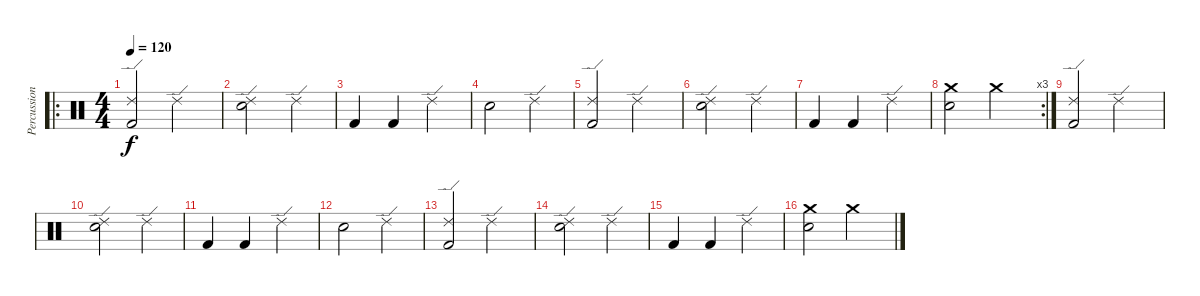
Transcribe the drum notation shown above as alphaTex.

\track ("Percussion" "Percussion") {instrument percussion}
\staff {score}
\articulation defaults
\ro
\ts (4 4)
\tempo 120
\clef neutral
\ks c
("Kick (hit) 2" "Ride (edge) 2").2{dy f} "Ride (edge) 2".2 |
("Snare (hit) 2" "Ride (edge) 2").2 "Ride (edge) 2".4 |
"Kick (hit) 2".4 "Kick (hit) 2".4 "Ride (edge) 2".4 |
"Snare (hit) 2".2 "Ride (edge) 2".4 |
("Kick (hit) 2" "Ride (edge) 2").2 "Ride (edge) 2".2 |
("Snare (hit) 2" "Ride (edge) 2").2 "Ride (edge) 2".4 |
"Kick (hit) 2".4 "Kick (hit) 2".4 "Ride (edge) 2".4 |
\rc 3
("Snare (hit) 2" "Crash medium (hit)").2 "Crash medium (hit)".2 |
("Kick (hit) 2" "Ride (edge) 2").2 "Ride (edge) 2".2 |
("Snare (hit) 2" "Ride (edge) 2").2 "Ride (edge) 2".4 |
"Kick (hit) 2".4 "Kick (hit) 2".4 "Ride (edge) 2".4 |
"Snare (hit) 2".2 "Ride (edge) 2".4 |
("Kick (hit) 2" "Ride (edge) 2").2 "Ride (edge) 2".2 |
("Snare (hit) 2" "Ride (edge) 2").2 "Ride (edge) 2".4 |
"Kick (hit) 2".4 "Kick (hit) 2".4 "Ride (edge) 2".4 |
("Snare (hit) 2" "Crash medium (hit)").2 "Crash medium (hit)".2
